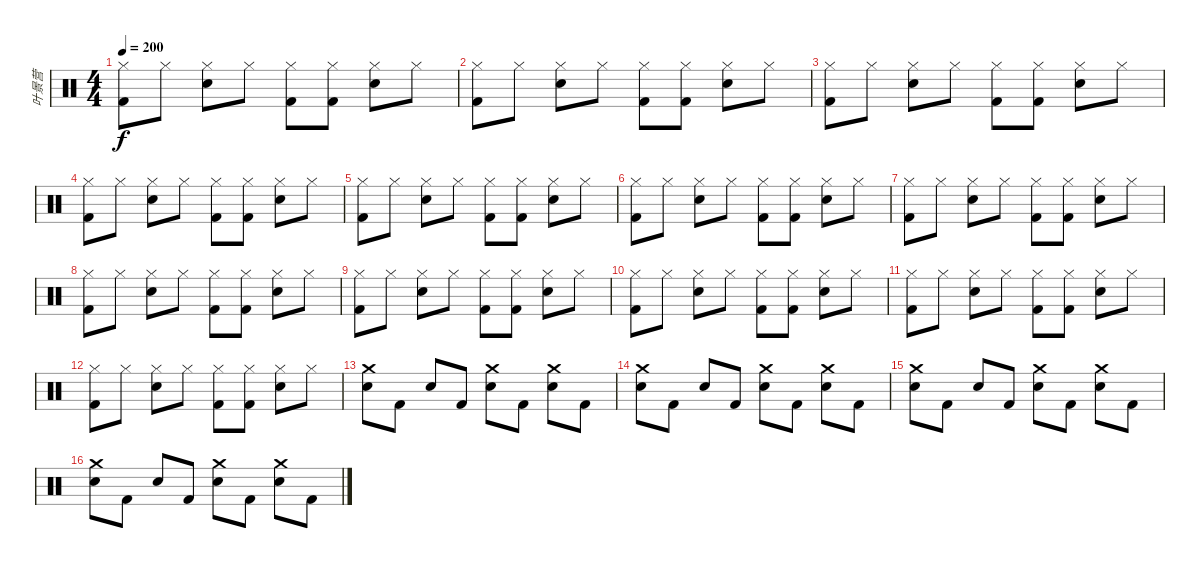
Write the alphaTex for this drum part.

\track ("叶景营" "叶景营") {instrument percussion}
\staff {score}
\articulation defaults
\ts (4 4)
\tempo 200
\clef neutral
\ks c
("Hi-Hat (closed)" "Kick (hit) 2").8{dy f} "Hi-Hat (closed)".8 ("Hi-Hat (closed)" "Electric Snare (hit)").8 "Hi-Hat (closed)".8 ("Hi-Hat (closed)" "Kick (hit) 2").8 ("Hi-Hat (closed)" "Kick (hit) 2").8 ("Hi-Hat (closed)" "Electric Snare (hit)").8 "Hi-Hat (closed)".8 |
("Hi-Hat (closed)" "Kick (hit) 2").8 "Hi-Hat (closed)".8 ("Hi-Hat (closed)" "Electric Snare (hit)").8 "Hi-Hat (closed)".8 ("Hi-Hat (closed)" "Kick (hit) 2").8 ("Hi-Hat (closed)" "Kick (hit) 2").8 ("Hi-Hat (closed)" "Electric Snare (hit)").8 "Hi-Hat (closed)".8 |
("Hi-Hat (closed)" "Kick (hit) 2").8 "Hi-Hat (closed)".8 ("Hi-Hat (closed)" "Electric Snare (hit)").8 "Hi-Hat (closed)".8 ("Hi-Hat (closed)" "Kick (hit) 2").8 ("Hi-Hat (closed)" "Kick (hit) 2").8 ("Hi-Hat (closed)" "Electric Snare (hit)").8 "Hi-Hat (closed)".8 |
("Hi-Hat (closed)" "Kick (hit) 2").8 "Hi-Hat (closed)".8 ("Hi-Hat (closed)" "Electric Snare (hit)").8 "Hi-Hat (closed)".8 ("Hi-Hat (closed)" "Kick (hit) 2").8 ("Hi-Hat (closed)" "Kick (hit) 2").8 ("Hi-Hat (closed)" "Electric Snare (hit)").8 "Hi-Hat (closed)".8 |
("Hi-Hat (closed)" "Kick (hit) 2").8 "Hi-Hat (closed)".8 ("Hi-Hat (closed)" "Electric Snare (hit)").8 "Hi-Hat (closed)".8 ("Hi-Hat (closed)" "Kick (hit) 2").8 ("Hi-Hat (closed)" "Kick (hit) 2").8 ("Hi-Hat (closed)" "Electric Snare (hit)").8 "Hi-Hat (closed)".8 |
("Hi-Hat (closed)" "Kick (hit) 2").8 "Hi-Hat (closed)".8 ("Hi-Hat (closed)" "Electric Snare (hit)").8 "Hi-Hat (closed)".8 ("Hi-Hat (closed)" "Kick (hit) 2").8 ("Hi-Hat (closed)" "Kick (hit) 2").8 ("Hi-Hat (closed)" "Electric Snare (hit)").8 "Hi-Hat (closed)".8 |
("Hi-Hat (closed)" "Kick (hit) 2").8 "Hi-Hat (closed)".8 ("Hi-Hat (closed)" "Electric Snare (hit)").8 "Hi-Hat (closed)".8 ("Hi-Hat (closed)" "Kick (hit) 2").8 ("Hi-Hat (closed)" "Kick (hit) 2").8 ("Hi-Hat (closed)" "Electric Snare (hit)").8 "Hi-Hat (closed)".8 |
("Hi-Hat (closed)" "Kick (hit) 2").8 "Hi-Hat (closed)".8 ("Hi-Hat (closed)" "Electric Snare (hit)").8 "Hi-Hat (closed)".8 ("Hi-Hat (closed)" "Kick (hit) 2").8 ("Hi-Hat (closed)" "Kick (hit) 2").8 ("Hi-Hat (closed)" "Electric Snare (hit)").8 "Hi-Hat (closed)".8 |
("Hi-Hat (closed)" "Kick (hit) 2").8 "Hi-Hat (closed)".8 ("Hi-Hat (closed)" "Electric Snare (hit)").8 "Hi-Hat (closed)".8 ("Hi-Hat (closed)" "Kick (hit) 2").8 ("Hi-Hat (closed)" "Kick (hit) 2").8 ("Hi-Hat (closed)" "Electric Snare (hit)").8 "Hi-Hat (closed)".8 |
("Hi-Hat (closed)" "Kick (hit) 2").8 "Hi-Hat (closed)".8 ("Hi-Hat (closed)" "Electric Snare (hit)").8 "Hi-Hat (closed)".8 ("Hi-Hat (closed)" "Kick (hit) 2").8 ("Hi-Hat (closed)" "Kick (hit) 2").8 ("Hi-Hat (closed)" "Electric Snare (hit)").8 "Hi-Hat (closed)".8 |
("Hi-Hat (closed)" "Kick (hit) 2").8 "Hi-Hat (closed)".8 ("Hi-Hat (closed)" "Electric Snare (hit)").8 "Hi-Hat (closed)".8 ("Hi-Hat (closed)" "Kick (hit) 2").8 ("Hi-Hat (closed)" "Kick (hit) 2").8 ("Hi-Hat (closed)" "Electric Snare (hit)").8 "Hi-Hat (closed)".8 |
("Hi-Hat (closed)" "Kick (hit) 2").8 "Hi-Hat (closed)".8 ("Hi-Hat (closed)" "Electric Snare (hit)").8 "Hi-Hat (closed)".8 ("Hi-Hat (closed)" "Kick (hit) 2").8 ("Hi-Hat (closed)" "Kick (hit) 2").8 ("Hi-Hat (closed)" "Electric Snare (hit)").8 "Hi-Hat (closed)".8 |
("Crash medium (hit)" "Electric Snare (hit)").8 "Kick (hit) 2".8 "Electric Snare (hit)".8 "Kick (hit) 2".8 ("Crash medium (hit)" "Electric Snare (hit)").8 "Kick (hit) 2".8 ("Crash medium (hit)" "Electric Snare (hit)").8 "Kick (hit) 2".8 |
("Crash medium (hit)" "Electric Snare (hit)").8 "Kick (hit) 2".8 "Electric Snare (hit)".8 "Kick (hit) 2".8 ("Crash medium (hit)" "Electric Snare (hit)").8 "Kick (hit) 2".8 ("Crash medium (hit)" "Electric Snare (hit)").8 "Kick (hit) 2".8 |
("Crash medium (hit)" "Electric Snare (hit)").8 "Kick (hit) 2".8 "Electric Snare (hit)".8 "Kick (hit) 2".8 ("Crash medium (hit)" "Electric Snare (hit)").8 "Kick (hit) 2".8 ("Crash medium (hit)" "Electric Snare (hit)").8 "Kick (hit) 2".8 |
("Crash medium (hit)" "Electric Snare (hit)").8 "Kick (hit) 2".8 "Electric Snare (hit)".8 "Kick (hit) 2".8 ("Crash medium (hit)" "Electric Snare (hit)").8 "Kick (hit) 2".8 ("Crash medium (hit)" "Electric Snare (hit)").8 "Kick (hit) 2".8
